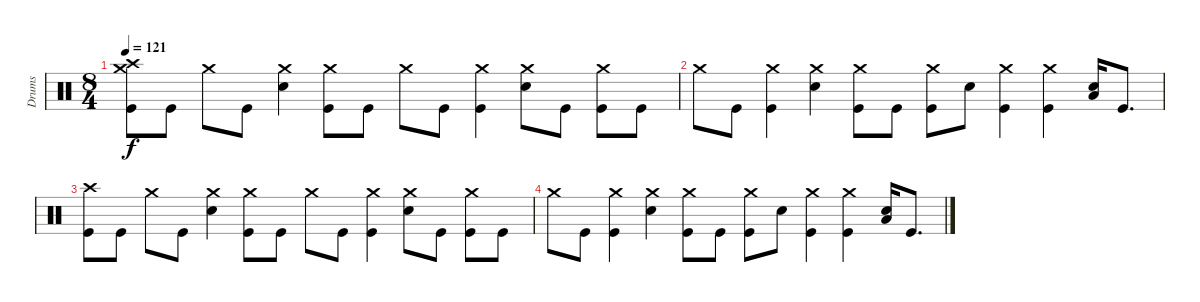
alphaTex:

\track ("Drums" "Drums") {instrument percussion}
\staff {score}
\articulation defaults
\ts (8 4)
\tempo 121
\clef neutral
\ks c
("Crash medium (hit)" "Crash high (hit)" "Kick (hit)").8{dy f} "Kick (hit)".8 "Crash medium (hit)".8 "Kick (hit)".8 ("Crash medium (hit)" "Electric Snare (hit)").4 ("Crash medium (hit)" "Kick (hit)").8 "Kick (hit)".8 "Crash medium (hit)".8 "Kick (hit)".8 ("Crash medium (hit)" "Kick (hit)").4 ("Crash medium (hit)" "Electric Snare (hit)").8 "Kick (hit)".8 ("Crash medium (hit)" "Kick (hit)").8 "Kick (hit)".8 |
"Crash medium (hit)".8 "Kick (hit)".8 ("Crash medium (hit)" "Kick (hit)").4 ("Crash medium (hit)" "Electric Snare (hit)").4 ("Crash medium (hit)" "Kick (hit)").8 "Kick (hit)".8 ("Crash medium (hit)" "Kick (hit)").8 "Electric Snare (hit)".8 ("Crash medium (hit)" "Kick (hit)").4 ("Crash medium (hit)" "Kick (hit)").4 ("Electric Snare (hit)" "Low Floor Tom (hit)").16 "Kick (hit)".8{d} |
("Crash high (hit)" "Kick (hit)").8 "Kick (hit)".8 "Crash medium (hit)".8 "Kick (hit)".8 ("Crash medium (hit)" "Electric Snare (hit)").4 ("Crash medium (hit)" "Kick (hit)").8 "Kick (hit)".8 "Crash medium (hit)".8 "Kick (hit)".8 ("Crash medium (hit)" "Kick (hit)").4 ("Crash medium (hit)" "Electric Snare (hit)").8 "Kick (hit)".8 ("Crash medium (hit)" "Kick (hit)").8 "Kick (hit)".8 |
"Crash medium (hit)".8 "Kick (hit)".8 ("Crash medium (hit)" "Kick (hit)").4 ("Crash medium (hit)" "Electric Snare (hit)").4 ("Crash medium (hit)" "Kick (hit)").8 "Kick (hit)".8 ("Crash medium (hit)" "Kick (hit)").8 "Electric Snare (hit)".8 ("Crash medium (hit)" "Kick (hit)").4 ("Crash medium (hit)" "Kick (hit)").4 ("Electric Snare (hit)" "Low Floor Tom (hit)").16 "Kick (hit)".8{d}
